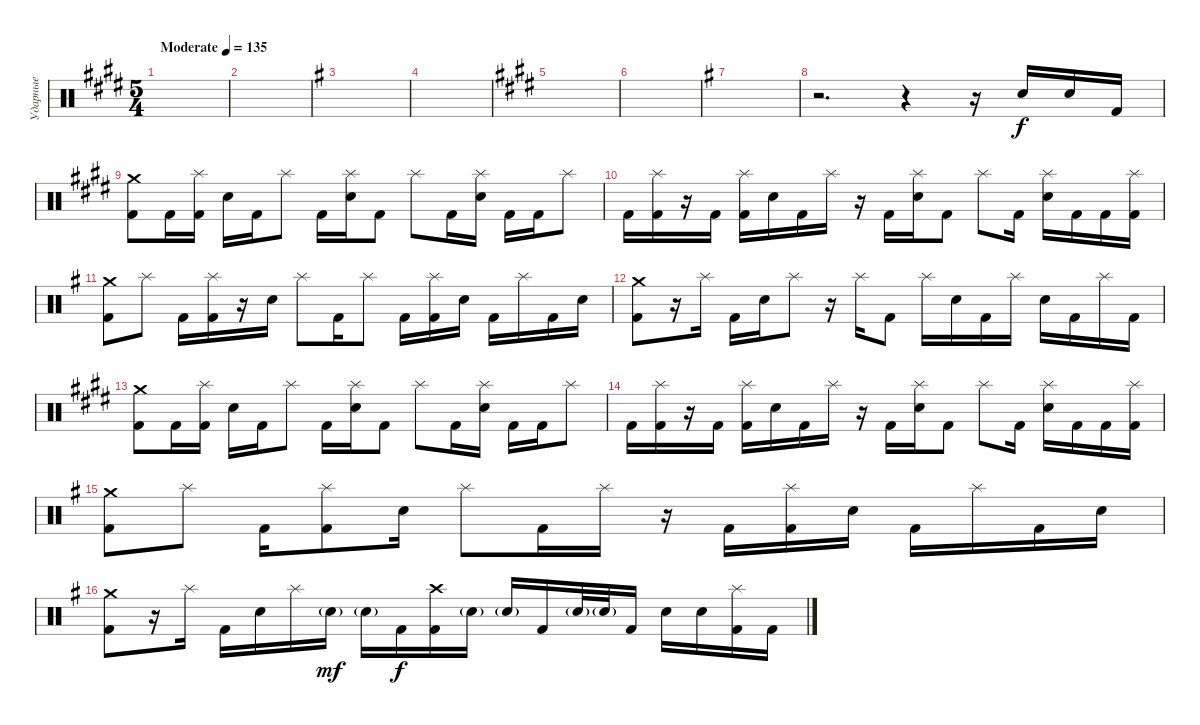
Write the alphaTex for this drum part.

\track ("Ударные" "Ударные") {instrument percussion}
\staff {score}
\articulation defaults
\ts (5 4)
\tempo (135 "Moderate")
\tempo 115
\tempo (135 "Moderate")
\clef neutral
\ks e
|
|
\ks g
|
|
\ks e
|
|
\ks g
|
r.2{d} r.4 r.16 "Electric Snare (hit)".16 "Electric Snare (hit)".16 "Kick (hit) 2".16 |
\ks e
("Crash medium (hit)" "Kick (hit) 2").8 "Kick (hit) 2".16 ("Splash (hit)" "Kick (hit) 2").16 "Electric Snare (hit)".16 "Kick (hit) 2".16 "Splash (hit)".8 "Kick (hit) 2".16 ("Splash (hit)" "Electric Snare (hit)").16 "Kick (hit) 2".8 "Splash (hit)".8 "Kick (hit) 2".16 ("Splash (hit)" "Electric Snare (hit)").16 "Kick (hit) 2".16 "Kick (hit) 2".16 "Splash (hit)".8 |
"Kick (hit) 2".16 ("Splash (hit)" "Kick (hit) 2").16 r.16 "Kick (hit) 2".16 ("Splash (hit)" "Kick (hit) 2").16 "Electric Snare (hit)".16 "Kick (hit) 2".16 "Splash (hit)".16 r.16 "Kick (hit) 2".16 ("Splash (hit)" "Electric Snare (hit)").16 "Kick (hit) 2".8 "Splash (hit)".8 "Kick (hit) 2".16 ("Splash (hit)" "Electric Snare (hit)").16 "Kick (hit) 2".16 "Kick (hit) 2".16 ("Splash (hit)" "Kick (hit) 2").16 |
\ks g
("Crash medium (hit)" "Kick (hit) 2").8 "Splash (hit)".8 "Kick (hit) 2".16 ("Splash (hit)" "Kick (hit) 2").16 r.16 "Electric Snare (hit)".16 "Splash (hit)".8 "Kick (hit) 2".16 "Splash (hit)".8 "Kick (hit) 2".16 ("Splash (hit)" "Kick (hit) 2").16 "Electric Snare (hit)".16 "Kick (hit) 2".16 "Splash (hit)".16 "Kick (hit) 2".16 "Electric Snare (hit)".16 |
("Crash medium (hit)" "Kick (hit) 2").8 r.16 "Splash (hit)".16 "Kick (hit) 2".16 "Electric Snare (hit)".16 "Splash (hit)".8 r.16 "Splash (hit)".16 "Kick (hit) 2".8 "Splash (hit)".16 "Electric Snare (hit)".16 "Kick (hit) 2".16 "Splash (hit)".16 "Electric Snare (hit)".16 "Kick (hit) 2".16 "Splash (hit)".16 "Kick (hit) 2".16 |
\ks e
("Crash medium (hit)" "Kick (hit) 2").8 "Kick (hit) 2".16 ("Splash (hit)" "Kick (hit) 2").16 "Electric Snare (hit)".16 "Kick (hit) 2".16 "Splash (hit)".8 "Kick (hit) 2".16 ("Splash (hit)" "Electric Snare (hit)").16 "Kick (hit) 2".8 "Splash (hit)".8 "Kick (hit) 2".16 ("Splash (hit)" "Electric Snare (hit)").16 "Kick (hit) 2".16 "Kick (hit) 2".16 "Splash (hit)".8 |
"Kick (hit) 2".16 ("Splash (hit)" "Kick (hit) 2").16 r.16 "Kick (hit) 2".16 ("Splash (hit)" "Kick (hit) 2").16 "Electric Snare (hit)".16 "Kick (hit) 2".16 "Splash (hit)".16 r.16 "Kick (hit) 2".16 ("Splash (hit)" "Electric Snare (hit)").16 "Kick (hit) 2".8 "Splash (hit)".8 "Kick (hit) 2".16 ("Splash (hit)" "Electric Snare (hit)").16 "Kick (hit) 2".16 "Kick (hit) 2".16 ("Splash (hit)" "Kick (hit) 2").16 |
\ks g
("Crash medium (hit)" "Kick (hit) 2").8 "Splash (hit)".8 "Kick (hit) 2".16 ("Splash (hit)" "Kick (hit) 2").8 "Electric Snare (hit)".16 "Splash (hit)".8 "Kick (hit) 2".16 "Splash (hit)".16 r.16 "Kick (hit) 2".16 ("Splash (hit)" "Kick (hit) 2").16 "Electric Snare (hit)".16 "Kick (hit) 2".16 "Splash (hit)".16 "Kick (hit) 2".16 "Electric Snare (hit)".16 |
("Crash medium (hit)" "Kick (hit) 2").8 r.16 "Splash (hit)".16 "Kick (hit) 2".16 "Electric Snare (hit)".16 "Splash (hit)".16 "Electric Snare (hit)"{g}.16{dy mf} "Electric Snare (hit)"{g}.16 "Kick (hit) 2".16{dy f} ("Crash high (hit)" "Kick (hit) 2").16 "Electric Snare (hit)"{g}.16 "Electric Snare (hit)"{g}.16 "Kick (hit) 2".16 "Electric Snare (hit)"{g}.32 "Electric Snare (hit)"{g}.32 "Kick (hit) 2".16 "Electric Snare (hit)".16 "Electric Snare (hit)".16 ("Splash (hit)" "Kick (hit) 2").16 "Kick (hit) 2".16
